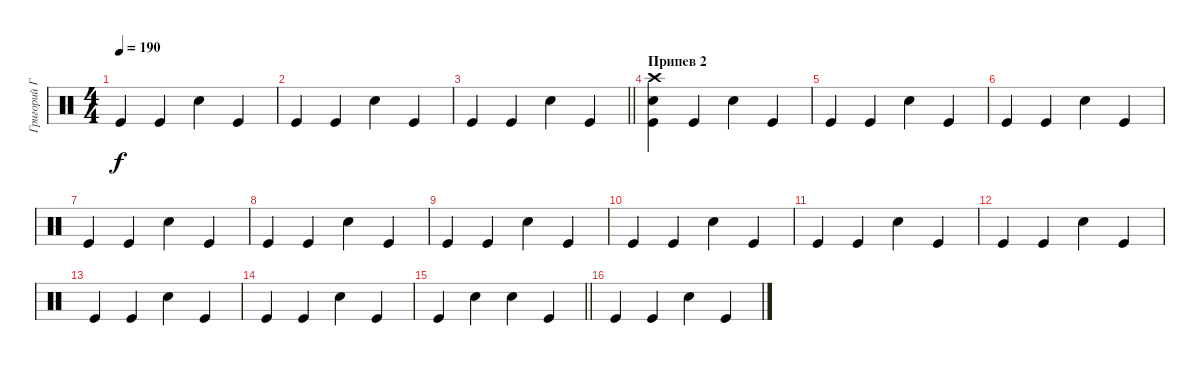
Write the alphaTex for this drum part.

\track ("Григорий Габерман" "Григорий Г") {instrument percussion}
\staff {score}
\articulation defaults
\ts (4 4)
\tempo 190
\clef neutral
\ks c "Kick (hit)".4{dy f} "Kick (hit)".4 "Snare (hit) 2".4 "Kick (hit)".4
|
"Kick (hit)".4 "Kick (hit)".4 "Snare (hit) 2".4 "Kick (hit)".4 |
\barLineRight lightlight "Kick (hit)".4 "Kick (hit)".4 "Snare (hit) 2".4 "Kick (hit)".4
|
\section ("" "Припев 2")
("Crash high (hit)" "Kick (hit)" "Snare (hit) 2").4 "Kick (hit)".4 "Snare (hit) 2".4 "Kick (hit)".4 |
"Kick (hit)".4 "Kick (hit)".4 "Snare (hit) 2".4 "Kick (hit)".4 |
"Kick (hit)".4 "Kick (hit)".4 "Snare (hit) 2".4 "Kick (hit)".4 |
"Kick (hit)".4 "Kick (hit)".4 "Snare (hit) 2".4 "Kick (hit)".4 |
"Kick (hit)".4 "Kick (hit)".4 "Snare (hit) 2".4 "Kick (hit)".4 |
"Kick (hit)".4 "Kick (hit)".4 "Snare (hit) 2".4 "Kick (hit)".4 |
"Kick (hit)".4 "Kick (hit)".4 "Snare (hit) 2".4 "Kick (hit)".4 |
"Kick (hit)".4 "Kick (hit)".4 "Snare (hit) 2".4 "Kick (hit)".4 |
"Kick (hit)".4 "Kick (hit)".4 "Snare (hit) 2".4 "Kick (hit)".4 |
"Kick (hit)".4 "Kick (hit)".4 "Snare (hit) 2".4 "Kick (hit)".4 |
"Kick (hit)".4 "Kick (hit)".4 "Snare (hit) 2".4 "Kick (hit)".4 |
\barLineRight lightlight "Kick (hit)".4 "Snare (hit) 2".4 "Snare (hit) 2".4 "Kick (hit)".4
|
"Kick (hit)".4 "Kick (hit)".4 "Snare (hit) 2".4 "Kick (hit)".4
